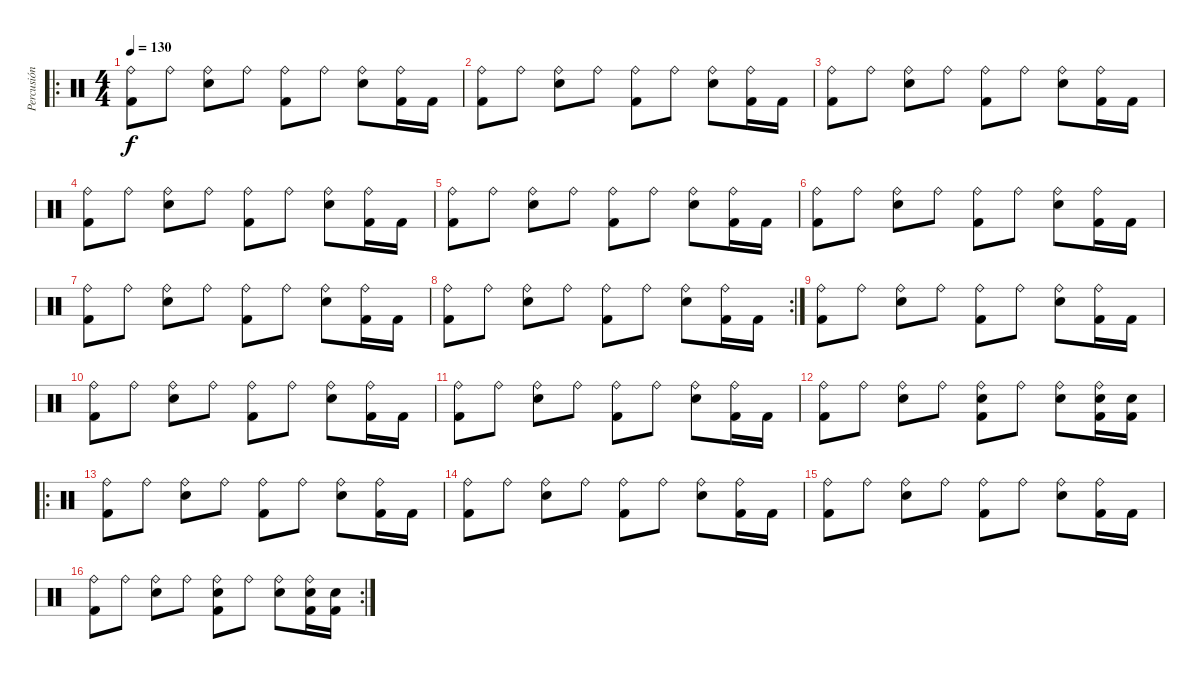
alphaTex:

\track ("Percusión" "Percusión") {instrument percussion}
\staff {score}
\articulation defaults
\ro
\ts (4 4)
\tempo 130
\clef neutral
\ks c
("Ride (bell)" "Kick (hit) 2").8{dy f} "Ride (bell)".8 ("Ride (bell)" "Electric Snare (hit)").8 "Ride (bell)".8 ("Ride (bell)" "Kick (hit) 2").8 "Ride (bell)".8 ("Ride (bell)" "Electric Snare (hit)").8 ("Ride (bell)" "Kick (hit) 2").16 "Kick (hit) 2".16 |
("Ride (bell)" "Kick (hit) 2").8 "Ride (bell)".8 ("Ride (bell)" "Electric Snare (hit)").8 "Ride (bell)".8 ("Ride (bell)" "Kick (hit) 2").8 "Ride (bell)".8 ("Ride (bell)" "Electric Snare (hit)").8 ("Ride (bell)" "Kick (hit) 2").16 "Kick (hit) 2".16 |
("Ride (bell)" "Kick (hit) 2").8 "Ride (bell)".8 ("Ride (bell)" "Electric Snare (hit)").8 "Ride (bell)".8 ("Ride (bell)" "Kick (hit) 2").8 "Ride (bell)".8 ("Ride (bell)" "Electric Snare (hit)").8 ("Ride (bell)" "Kick (hit) 2").16 "Kick (hit) 2".16 |
("Ride (bell)" "Kick (hit) 2").8 "Ride (bell)".8 ("Ride (bell)" "Electric Snare (hit)").8 "Ride (bell)".8 ("Ride (bell)" "Kick (hit) 2").8 "Ride (bell)".8 ("Ride (bell)" "Electric Snare (hit)").8 ("Ride (bell)" "Kick (hit) 2").16 "Kick (hit) 2".16 |
("Ride (bell)" "Kick (hit) 2").8 "Ride (bell)".8 ("Ride (bell)" "Electric Snare (hit)").8 "Ride (bell)".8 ("Ride (bell)" "Kick (hit) 2").8 "Ride (bell)".8 ("Ride (bell)" "Electric Snare (hit)").8 ("Ride (bell)" "Kick (hit) 2").16 "Kick (hit) 2".16 |
("Ride (bell)" "Kick (hit) 2").8 "Ride (bell)".8 ("Ride (bell)" "Electric Snare (hit)").8 "Ride (bell)".8 ("Ride (bell)" "Kick (hit) 2").8 "Ride (bell)".8 ("Ride (bell)" "Electric Snare (hit)").8 ("Ride (bell)" "Kick (hit) 2").16 "Kick (hit) 2".16 |
("Ride (bell)" "Kick (hit) 2").8 "Ride (bell)".8 ("Ride (bell)" "Electric Snare (hit)").8 "Ride (bell)".8 ("Ride (bell)" "Kick (hit) 2").8 "Ride (bell)".8 ("Ride (bell)" "Electric Snare (hit)").8 ("Ride (bell)" "Kick (hit) 2").16 "Kick (hit) 2".16 |
\rc 2
("Ride (bell)" "Kick (hit) 2").8 "Ride (bell)".8 ("Ride (bell)" "Electric Snare (hit)").8 "Ride (bell)".8 ("Ride (bell)" "Kick (hit) 2").8 "Ride (bell)".8 ("Ride (bell)" "Electric Snare (hit)").8 ("Ride (bell)" "Kick (hit) 2").16 "Kick (hit) 2".16 |
("Ride (bell)" "Kick (hit) 2").8 "Ride (bell)".8 ("Ride (bell)" "Electric Snare (hit)").8 "Ride (bell)".8 ("Ride (bell)" "Kick (hit) 2").8 "Ride (bell)".8 ("Ride (bell)" "Electric Snare (hit)").8 ("Ride (bell)" "Kick (hit) 2").16 "Kick (hit) 2".16 |
("Ride (bell)" "Kick (hit) 2").8 "Ride (bell)".8 ("Ride (bell)" "Electric Snare (hit)").8 "Ride (bell)".8 ("Ride (bell)" "Kick (hit) 2").8 "Ride (bell)".8 ("Ride (bell)" "Electric Snare (hit)").8 ("Ride (bell)" "Kick (hit) 2").16 "Kick (hit) 2".16 |
("Ride (bell)" "Kick (hit) 2").8 "Ride (bell)".8 ("Ride (bell)" "Electric Snare (hit)").8 "Ride (bell)".8 ("Ride (bell)" "Kick (hit) 2").8 "Ride (bell)".8 ("Ride (bell)" "Electric Snare (hit)").8 ("Ride (bell)" "Kick (hit) 2").16 "Kick (hit) 2".16 |
("Ride (bell)" "Kick (hit) 2").8 "Ride (bell)".8 ("Ride (bell)" "Electric Snare (hit)").8 "Ride (bell)".8 ("Ride (bell)" "Electric Snare (hit)" "Kick (hit) 2").8 "Ride (bell)".8 ("Ride (bell)" "Electric Snare (hit)").8 ("Ride (bell)" "Electric Snare (hit)" "Kick (hit) 2").16 ("Electric Snare (hit)" "Kick (hit) 2").16 |
\ro
("Ride (bell)" "Kick (hit) 2").8 "Ride (bell)".8 ("Ride (bell)" "Electric Snare (hit)").8 "Ride (bell)".8 ("Ride (bell)" "Kick (hit) 2").8 "Ride (bell)".8 ("Ride (bell)" "Electric Snare (hit)").8 ("Ride (bell)" "Kick (hit) 2").16 "Kick (hit) 2".16 |
("Ride (bell)" "Kick (hit) 2").8 "Ride (bell)".8 ("Ride (bell)" "Electric Snare (hit)").8 "Ride (bell)".8 ("Ride (bell)" "Kick (hit) 2").8 "Ride (bell)".8 ("Ride (bell)" "Electric Snare (hit)").8 ("Ride (bell)" "Kick (hit) 2").16 "Kick (hit) 2".16 |
("Ride (bell)" "Kick (hit) 2").8 "Ride (bell)".8 ("Ride (bell)" "Electric Snare (hit)").8 "Ride (bell)".8 ("Ride (bell)" "Kick (hit) 2").8 "Ride (bell)".8 ("Ride (bell)" "Electric Snare (hit)").8 ("Ride (bell)" "Kick (hit) 2").16 "Kick (hit) 2".16 |
\rc 2
("Ride (bell)" "Kick (hit) 2").8 "Ride (bell)".8 ("Ride (bell)" "Electric Snare (hit)").8 "Ride (bell)".8 ("Ride (bell)" "Electric Snare (hit)" "Kick (hit) 2").8 "Ride (bell)".8 ("Ride (bell)" "Electric Snare (hit)").8 ("Ride (bell)" "Electric Snare (hit)" "Kick (hit) 2").16 ("Electric Snare (hit)" "Kick (hit) 2").16
